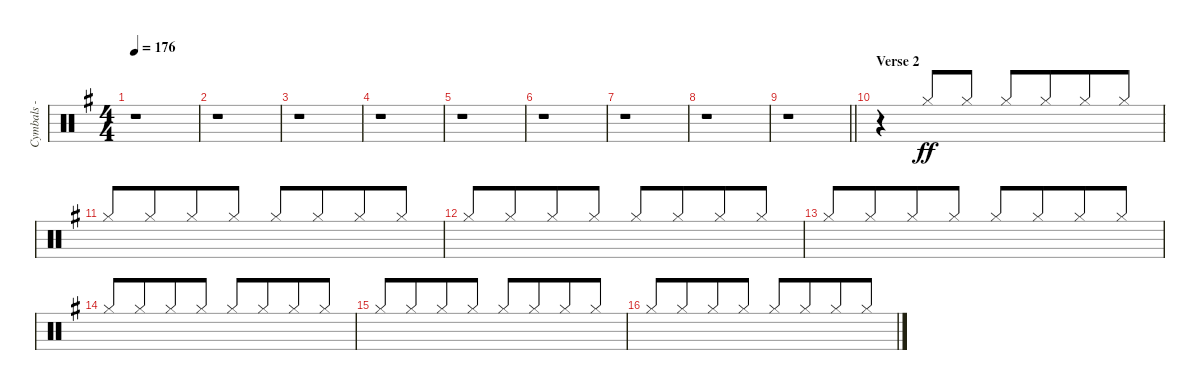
\track ("Cymbals - hi-hat" "Cymbals - ") {instrument percussion}
\staff {score}
\articulation defaults
\ts (4 4)
\tempo 176
\clef neutral
\ks eminor
r.1{dy ff} |
r.1 |
r.1 |
r.1 |
r.1 |
r.1 |
r.1 |
r.1 |
\barLineRight lightlight
r.1 |
\section ("" "Verse 2")
r.4{volume 6} "Hi-Hat (closed)".8{beam Up} "Hi-Hat (closed)".8{beam Up} "Hi-Hat (closed)".8{beam Up} "Hi-Hat (closed)".8{beam Up beam merge} "Hi-Hat (closed)".8{beam Up} "Hi-Hat (closed)".8{beam Up} |
"Hi-Hat (closed)".8{beam Up} "Hi-Hat (closed)".8{beam Up beam merge} "Hi-Hat (closed)".8{beam Up} "Hi-Hat (closed)".8{beam Up} "Hi-Hat (closed)".8{beam Up} "Hi-Hat (closed)".8{beam Up beam merge} "Hi-Hat (closed)".8{beam Up} "Hi-Hat (closed)".8{beam Up} |
"Hi-Hat (closed)".8{beam Up} "Hi-Hat (closed)".8{beam Up beam merge} "Hi-Hat (closed)".8{beam Up} "Hi-Hat (closed)".8{beam Up} "Hi-Hat (closed)".8{beam Up} "Hi-Hat (closed)".8{beam Up beam merge} "Hi-Hat (closed)".8{beam Up} "Hi-Hat (closed)".8{beam Up} |
"Hi-Hat (closed)".8{beam Up} "Hi-Hat (closed)".8{beam Up beam merge} "Hi-Hat (closed)".8{beam Up} "Hi-Hat (closed)".8{beam Up} "Hi-Hat (closed)".8{beam Up} "Hi-Hat (closed)".8{beam Up beam merge} "Hi-Hat (closed)".8{beam Up} "Hi-Hat (closed)".8{beam Up} |
"Hi-Hat (closed)".8{beam Up} "Hi-Hat (closed)".8{beam Up beam merge} "Hi-Hat (closed)".8{beam Up} "Hi-Hat (closed)".8{beam Up} "Hi-Hat (closed)".8{beam Up} "Hi-Hat (closed)".8{beam Up beam merge} "Hi-Hat (closed)".8{beam Up} "Hi-Hat (closed)".8{beam Up} |
"Hi-Hat (closed)".8{beam Up} "Hi-Hat (closed)".8{beam Up beam merge} "Hi-Hat (closed)".8{beam Up} "Hi-Hat (closed)".8{beam Up} "Hi-Hat (closed)".8{beam Up} "Hi-Hat (closed)".8{beam Up beam merge} "Hi-Hat (closed)".8{beam Up} "Hi-Hat (closed)".8{beam Up} |
"Hi-Hat (closed)".8{beam Up} "Hi-Hat (closed)".8{beam Up beam merge} "Hi-Hat (closed)".8{beam Up} "Hi-Hat (closed)".8{beam Up} "Hi-Hat (closed)".8{beam Up} "Hi-Hat (closed)".8{beam Up beam merge} "Hi-Hat (closed)".8{beam Up} "Hi-Hat (closed)".8{beam Up}
